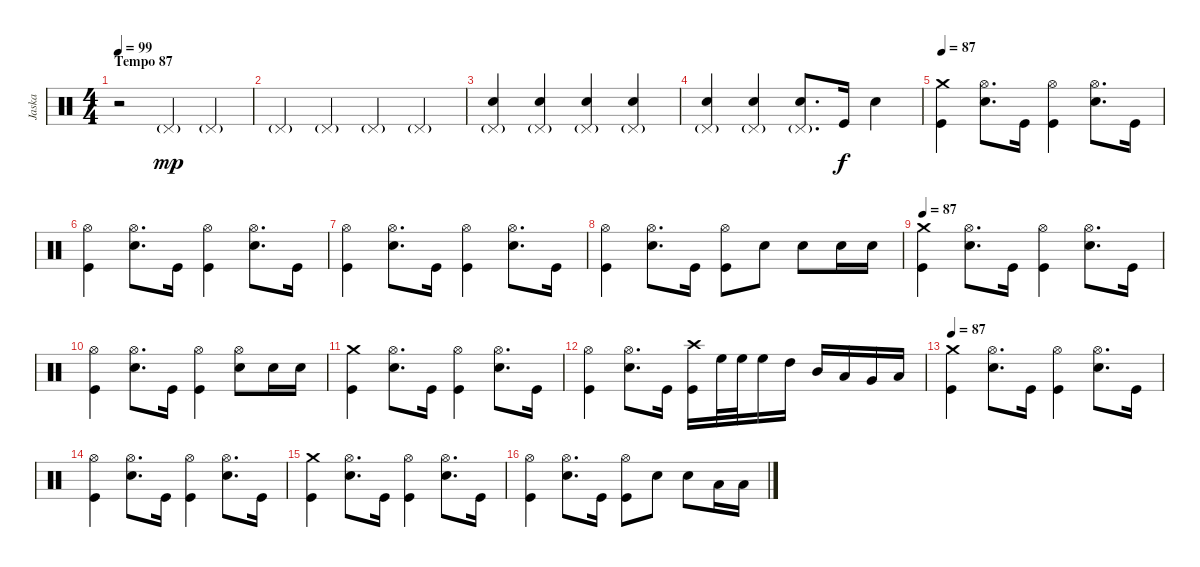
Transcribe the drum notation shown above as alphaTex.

\track ("Jaska" "Jaska") {instrument percussion}
\staff {score}
\articulation defaults
\ts (4 4)
\section ("" "Tempo 87")
\tempo 99
\tempo 87
\tempo 99
\clef neutral
\ks c
r.2{dy mp} "Pedal Hi-Hat (hit)"{g}.4 "Pedal Hi-Hat (hit)"{g}.4 |
"Pedal Hi-Hat (hit)"{g}.4 "Pedal Hi-Hat (hit)"{g}.4 "Pedal Hi-Hat (hit)"{g}.4 "Pedal Hi-Hat (hit)"{g}.4 |
("Hand Clap (hit)" "Pedal Hi-Hat (hit)"{g}).4 ("Hand Clap (hit)" "Pedal Hi-Hat (hit)"{g}).4 ("Hand Clap (hit)" "Pedal Hi-Hat (hit)"{g}).4 ("Hand Clap (hit)" "Pedal Hi-Hat (hit)"{g}).4 |
("Hand Clap (hit)" "Pedal Hi-Hat (hit)"{g}).4 ("Hand Clap (hit)" "Pedal Hi-Hat (hit)"{g}).4 ("Hand Clap (hit)" "Pedal Hi-Hat (hit)"{g}).8{d} "Kick (hit)".16{dy f} "Electric Snare (hit)".4 |
\tempo 87
("Crash medium (hit)" "Kick (hit)").4 ("Hi-Hat (open)" "Electric Snare (hit)").8{d} "Kick (hit)".16 ("Hi-Hat (open)" "Kick (hit)").4 ("Hi-Hat (open)" "Electric Snare (hit)").8{d} "Kick (hit)".16 |
("Hi-Hat (open)" "Kick (hit)").4 ("Hi-Hat (open)" "Electric Snare (hit)").8{d} "Kick (hit)".16 ("Hi-Hat (open)" "Kick (hit)").4 ("Hi-Hat (open)" "Electric Snare (hit)").8{d} "Kick (hit)".16 |
("Hi-Hat (open)" "Kick (hit)").4 ("Hi-Hat (open)" "Electric Snare (hit)").8{d} "Kick (hit)".16 ("Hi-Hat (open)" "Kick (hit)").4 ("Hi-Hat (open)" "Electric Snare (hit)").8{d} "Kick (hit)".16 |
("Hi-Hat (open)" "Kick (hit)").4 ("Hi-Hat (open)" "Electric Snare (hit)").8{d} "Kick (hit)".16 ("Hi-Hat (open)" "Kick (hit)").8 "Electric Snare (hit)".8 "Electric Snare (hit)".8 "Electric Snare (hit)".16 "Electric Snare (hit)".16 |
\tempo 87
("Crash medium (hit)" "Kick (hit)").4 ("Hi-Hat (open)" "Electric Snare (hit)").8{d} "Kick (hit)".16 ("Hi-Hat (open)" "Kick (hit)").4 ("Hi-Hat (open)" "Electric Snare (hit)").8{d} "Kick (hit)".16 |
("Hi-Hat (open)" "Kick (hit)").4 ("Hi-Hat (open)" "Electric Snare (hit)").8{d} "Kick (hit)".16 ("Hi-Hat (open)" "Kick (hit)").4 ("Hi-Hat (open)" "Electric Snare (hit)").8 "Electric Snare (hit)".16 "Electric Snare (hit)".16 |
("Crash medium (hit)" "Kick (hit)").4 ("Hi-Hat (open)" "Electric Snare (hit)").8{d} "Kick (hit)".16 ("Hi-Hat (open)" "Kick (hit)").4 ("Hi-Hat (open)" "Electric Snare (hit)").8{d} "Kick (hit)".16 |
("Hi-Hat (open)" "Kick (hit)").4 ("Hi-Hat (open)" "Electric Snare (hit)").8{d} "Kick (hit)".16 ("Crash high (hit)" "Kick (hit)").16 "High Floor Tom (hit)".32 "High Floor Tom (hit)".32 "High Floor Tom (hit)".16 "High Tom (hit)".16 "Mid Tom (hit)".16 "Low Tom (hit)".16 "Very Low Tom (hit)".16 "Low Floor Tom (hit)".16 |
\tempo 87
("Crash medium (hit)" "Kick (hit)").4 ("Hi-Hat (open)" "Electric Snare (hit)").8{d} "Kick (hit)".16 ("Hi-Hat (open)" "Kick (hit)").4 ("Hi-Hat (open)" "Electric Snare (hit)").8{d} "Kick (hit)".16 |
("Hi-Hat (open)" "Kick (hit)").4 ("Hi-Hat (open)" "Electric Snare (hit)").8{d} "Kick (hit)".16 ("Hi-Hat (open)" "Kick (hit)").4 ("Hi-Hat (open)" "Electric Snare (hit)").8{d} "Kick (hit)".16 |
("Crash medium (hit)" "Kick (hit)").4 ("Hi-Hat (open)" "Electric Snare (hit)").8{d} "Kick (hit)".16 ("Hi-Hat (open)" "Kick (hit)").4 ("Hi-Hat (open)" "Electric Snare (hit)").8{d} "Kick (hit)".16 |
("Hi-Hat (open)" "Kick (hit)").4 ("Hi-Hat (open)" "Electric Snare (hit)").8{d} "Kick (hit)".16 ("Hi-Hat (open)" "Kick (hit)").8 "Electric Snare (hit)".8 "Electric Snare (hit)".8 "Low Tom (hit)".16 "Low Tom (hit)".16
